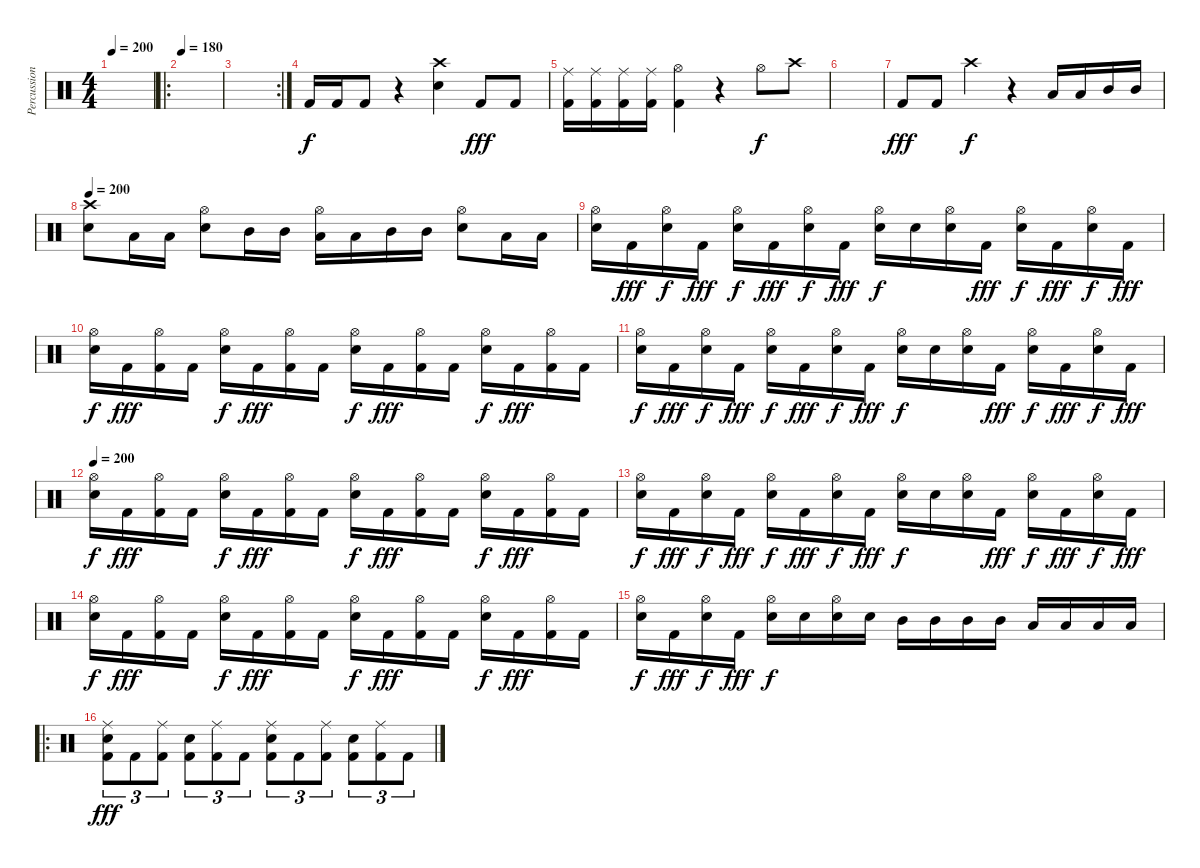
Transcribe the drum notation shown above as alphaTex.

\track ("Percussion" "Percussion") {instrument percussion}
\staff {score}
\articulation defaults
\ts (4 4)
\tempo 200
\clef neutral
\ks c
|
\ro
\tempo 180
|
\rc 2
|
"Kick (hit) 2".16 "Kick (hit) 2".16 "Kick (hit) 2".8 r.4 ("Crash high (hit)" "Electric Snare (hit)").4{dy f} "Kick (hit) 2".8{dy fff} "Kick (hit) 2".8 |
("Ride (middle)" "Kick (hit) 2").16 ("Ride (middle)" "Kick (hit) 2").16 ("Ride (middle)" "Kick (hit) 2").16 ("Ride (middle)" "Kick (hit) 2").16 ("Hi-Hat (open)" "Kick (hit) 2").4 r.4 "Hi-Hat (open)".8{dy f} "Crash high (hit)".8 |
|
"Kick (hit) 2".8{dy fff} "Kick (hit) 2".8 "Crash high (hit)".4{dy f} r.4 "Low Tom (hit)".16 "Low Tom (hit)".16 "Mid Tom (hit)".16 "Mid Tom (hit)".16 |
\tempo 200
("Crash high (hit)" "Electric Snare (hit)").8 "Low Tom (hit)".16 "Low Tom (hit)".16 ("Hi-Hat (open)" "Electric Snare (hit)").8 "Mid Tom (hit)".16 "Mid Tom (hit)".16 ("Hi-Hat (open)" "Low Tom (hit)").16 "Low Tom (hit)".16 "Mid Tom (hit)".16 "Mid Tom (hit)".16 ("Hi-Hat (open)" "Electric Snare (hit)").8 "Low Tom (hit)".16 "Low Tom (hit)".16 |
("Hi-Hat (open)" "Electric Snare (hit)").16 "Kick (hit) 2".16{dy fff} ("Hi-Hat (open)" "Electric Snare (hit)").16{dy f} "Kick (hit) 2".16{dy fff} ("Hi-Hat (open)" "Electric Snare (hit)").16{dy f} "Kick (hit) 2".16{dy fff} ("Hi-Hat (open)" "Electric Snare (hit)").16{dy f} "Kick (hit) 2".16{dy fff} ("Hi-Hat (open)" "Electric Snare (hit)").16{dy f} "Electric Snare (hit)".16 ("Hi-Hat (open)" "Electric Snare (hit)").16 "Kick (hit) 2".16{dy fff} ("Hi-Hat (open)" "Electric Snare (hit)").16{dy f} "Kick (hit) 2".16{dy fff} ("Hi-Hat (open)" "Electric Snare (hit)").16{dy f} "Kick (hit) 2".16{dy fff} |
("Hi-Hat (open)" "Electric Snare (hit)").16{dy f} "Kick (hit) 2".16{dy fff} ("Hi-Hat (open)" "Kick (hit) 2").16 "Kick (hit) 2".16 ("Hi-Hat (open)" "Electric Snare (hit)").16{dy f} "Kick (hit) 2".16{dy fff} ("Hi-Hat (open)" "Kick (hit) 2").16 "Kick (hit) 2".16 ("Hi-Hat (open)" "Electric Snare (hit)").16{dy f} "Kick (hit) 2".16{dy fff} ("Hi-Hat (open)" "Kick (hit) 2").16 "Kick (hit) 2".16 ("Hi-Hat (open)" "Electric Snare (hit)").16{dy f} "Kick (hit) 2".16{dy fff} ("Hi-Hat (open)" "Kick (hit) 2").16 "Kick (hit) 2".16 |
("Hi-Hat (open)" "Electric Snare (hit)").16{dy f} "Kick (hit) 2".16{dy fff} ("Hi-Hat (open)" "Electric Snare (hit)").16{dy f} "Kick (hit) 2".16{dy fff} ("Hi-Hat (open)" "Electric Snare (hit)").16{dy f} "Kick (hit) 2".16{dy fff} ("Hi-Hat (open)" "Electric Snare (hit)").16{dy f} "Kick (hit) 2".16{dy fff} ("Hi-Hat (open)" "Electric Snare (hit)").16{dy f} "Electric Snare (hit)".16 ("Hi-Hat (open)" "Electric Snare (hit)").16 "Kick (hit) 2".16{dy fff} ("Hi-Hat (open)" "Electric Snare (hit)").16{dy f} "Kick (hit) 2".16{dy fff} ("Hi-Hat (open)" "Electric Snare (hit)").16{dy f} "Kick (hit) 2".16{dy fff} |
\tempo 200
("Hi-Hat (open)" "Electric Snare (hit)").16{dy f} "Kick (hit) 2".16{dy fff} ("Hi-Hat (open)" "Kick (hit) 2").16 "Kick (hit) 2".16 ("Hi-Hat (open)" "Electric Snare (hit)").16{dy f} "Kick (hit) 2".16{dy fff} ("Hi-Hat (open)" "Kick (hit) 2").16 "Kick (hit) 2".16 ("Hi-Hat (open)" "Electric Snare (hit)").16{dy f} "Kick (hit) 2".16{dy fff} ("Hi-Hat (open)" "Kick (hit) 2").16 "Kick (hit) 2".16 ("Hi-Hat (open)" "Electric Snare (hit)").16{dy f} "Kick (hit) 2".16{dy fff} ("Hi-Hat (open)" "Kick (hit) 2").16 "Kick (hit) 2".16 |
("Hi-Hat (open)" "Electric Snare (hit)").16{dy f} "Kick (hit) 2".16{dy fff} ("Hi-Hat (open)" "Electric Snare (hit)").16{dy f} "Kick (hit) 2".16{dy fff} ("Hi-Hat (open)" "Electric Snare (hit)").16{dy f} "Kick (hit) 2".16{dy fff} ("Hi-Hat (open)" "Electric Snare (hit)").16{dy f} "Kick (hit) 2".16{dy fff} ("Hi-Hat (open)" "Electric Snare (hit)").16{dy f} "Electric Snare (hit)".16 ("Hi-Hat (open)" "Electric Snare (hit)").16 "Kick (hit) 2".16{dy fff} ("Hi-Hat (open)" "Electric Snare (hit)").16{dy f} "Kick (hit) 2".16{dy fff} ("Hi-Hat (open)" "Electric Snare (hit)").16{dy f} "Kick (hit) 2".16{dy fff} |
("Hi-Hat (open)" "Electric Snare (hit)").16{dy f} "Kick (hit) 2".16{dy fff} ("Hi-Hat (open)" "Kick (hit) 2").16 "Kick (hit) 2".16 ("Hi-Hat (open)" "Electric Snare (hit)").16{dy f} "Kick (hit) 2".16{dy fff} ("Hi-Hat (open)" "Kick (hit) 2").16 "Kick (hit) 2".16 ("Hi-Hat (open)" "Electric Snare (hit)").16{dy f} "Kick (hit) 2".16{dy fff} ("Hi-Hat (open)" "Kick (hit) 2").16 "Kick (hit) 2".16 ("Hi-Hat (open)" "Electric Snare (hit)").16{dy f} "Kick (hit) 2".16{dy fff} ("Hi-Hat (open)" "Kick (hit) 2").16 "Kick (hit) 2".16 |
("Hi-Hat (open)" "Electric Snare (hit)").16{dy f} "Kick (hit) 2".16{dy fff} ("Hi-Hat (open)" "Electric Snare (hit)").16{dy f} "Kick (hit) 2".16{dy fff} ("Hi-Hat (open)" "Electric Snare (hit)").16{dy f} "Electric Snare (hit)".16 ("Hi-Hat (open)" "Electric Snare (hit)").16 "Electric Snare (hit)".16 "Mid Tom (hit)".16 "Mid Tom (hit)".16 "Mid Tom (hit)".16 "Mid Tom (hit)".16 "Low Tom (hit)".16 "Low Tom (hit)".16 "Low Tom (hit)".16 "Low Tom (hit)".16 |
\ro
("Ride (middle)" "Electric Snare (hit)" "Kick (hit) 2").8{tu (3 2) dy fff} "Kick (hit) 2".8{tu (3 2)} ("Ride (middle)" "Kick (hit) 2").8{tu (3 2)} ("Electric Snare (hit)" "Kick (hit) 2").8{tu (3 2)} ("Ride (middle)" "Kick (hit) 2").8{tu (3 2)} "Kick (hit) 2".8{tu (3 2)} ("Ride (middle)" "Electric Snare (hit)" "Kick (hit) 2").8{tu (3 2)} "Kick (hit) 2".8{tu (3 2)} ("Ride (middle)" "Kick (hit) 2").8{tu (3 2)} ("Electric Snare (hit)" "Kick (hit) 2").8{tu (3 2)} ("Ride (middle)" "Kick (hit) 2").8{tu (3 2)} "Kick (hit) 2".8{tu (3 2)}
